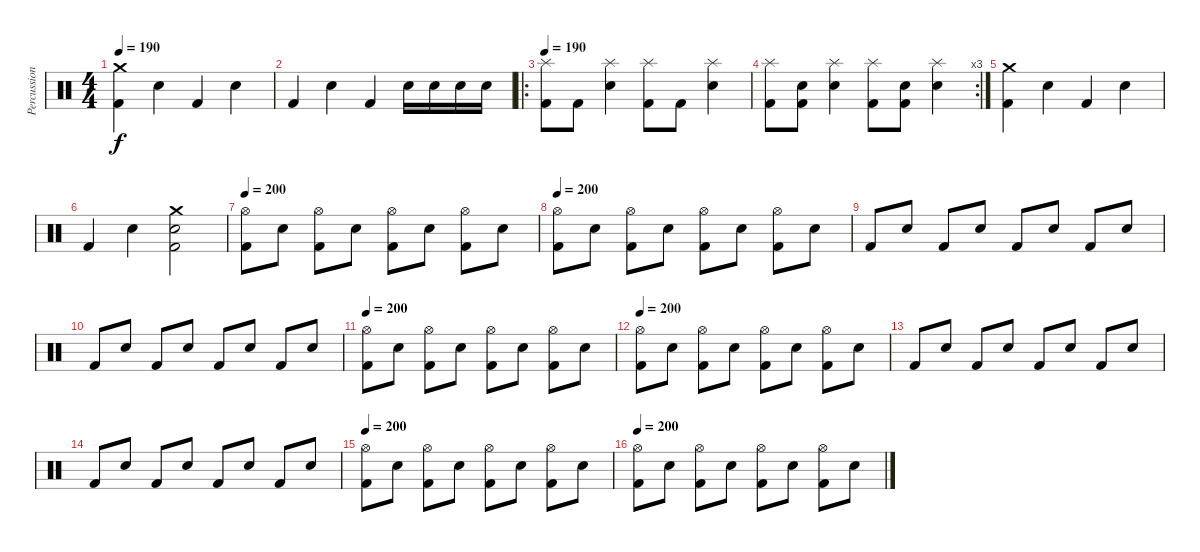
\track ("Percussion" "Percussion") {instrument percussion}
\staff {score}
\articulation defaults
\ts (4 4)
\tempo 190
\clef neutral
\ks c
("Crash medium (hit)" "Kick (hit) 2").4{dy f} "Electric Snare (hit)".4 "Kick (hit) 2".4 "Electric Snare (hit)".4 |
"Kick (hit) 2".4 "Electric Snare (hit)".4 "Kick (hit) 2".4 "Electric Snare (hit)".16 "Electric Snare (hit)".16 "Electric Snare (hit)".16 "Electric Snare (hit)".16 |
\ro
\tempo 190
("Splash (hit)" "Kick (hit) 2").8 "Kick (hit) 2".8 ("Splash (hit)" "Electric Snare (hit)").4 ("Splash (hit)" "Kick (hit) 2").8 "Kick (hit) 2".8 ("Splash (hit)" "Electric Snare (hit)").4 |
\rc 3
("Splash (hit)" "Kick (hit) 2").8 ("Electric Snare (hit)" "Kick (hit) 2").8 ("Splash (hit)" "Electric Snare (hit)").4 ("Splash (hit)" "Kick (hit) 2").8 ("Electric Snare (hit)" "Kick (hit) 2").8 ("Splash (hit)" "Electric Snare (hit)").4 |
("Crash medium (hit)" "Kick (hit) 2").4 "Electric Snare (hit)".4 "Kick (hit) 2".4 "Electric Snare (hit)".4 |
"Kick (hit) 2".4 "Electric Snare (hit)".4 ("Crash medium (hit)" "Electric Snare (hit)" "Kick (hit) 2").2 |
\tempo 200
("Hi-Hat (open)" "Kick (hit) 2").8 "Electric Snare (hit)".8 ("Hi-Hat (open)" "Kick (hit) 2").8 "Electric Snare (hit)".8 ("Hi-Hat (open)" "Kick (hit) 2").8 "Electric Snare (hit)".8 ("Hi-Hat (open)" "Kick (hit) 2").8 "Electric Snare (hit)".8 |
\tempo 200
("Hi-Hat (open)" "Kick (hit) 2").8 "Electric Snare (hit)".8 ("Hi-Hat (open)" "Kick (hit) 2").8 "Electric Snare (hit)".8 ("Hi-Hat (open)" "Kick (hit) 2").8 "Electric Snare (hit)".8 ("Hi-Hat (open)" "Kick (hit) 2").8 "Electric Snare (hit)".8 |
"Kick (hit) 2".8 "Electric Snare (hit)".8 "Kick (hit) 2".8 "Electric Snare (hit)".8 "Kick (hit) 2".8 "Electric Snare (hit)".8 "Kick (hit) 2".8 "Electric Snare (hit)".8 |
"Kick (hit) 2".8 "Electric Snare (hit)".8 "Kick (hit) 2".8 "Electric Snare (hit)".8 "Kick (hit) 2".8 "Electric Snare (hit)".8 "Kick (hit) 2".8 "Electric Snare (hit)".8 |
\tempo 200
("Hi-Hat (open)" "Kick (hit) 2").8 "Electric Snare (hit)".8 ("Hi-Hat (open)" "Kick (hit) 2").8 "Electric Snare (hit)".8 ("Hi-Hat (open)" "Kick (hit) 2").8 "Electric Snare (hit)".8 ("Hi-Hat (open)" "Kick (hit) 2").8 "Electric Snare (hit)".8 |
\tempo 200
("Hi-Hat (open)" "Kick (hit) 2").8 "Electric Snare (hit)".8 ("Hi-Hat (open)" "Kick (hit) 2").8 "Electric Snare (hit)".8 ("Hi-Hat (open)" "Kick (hit) 2").8 "Electric Snare (hit)".8 ("Hi-Hat (open)" "Kick (hit) 2").8 "Electric Snare (hit)".8 |
"Kick (hit) 2".8 "Electric Snare (hit)".8 "Kick (hit) 2".8 "Electric Snare (hit)".8 "Kick (hit) 2".8 "Electric Snare (hit)".8 "Kick (hit) 2".8 "Electric Snare (hit)".8 |
"Kick (hit) 2".8 "Electric Snare (hit)".8 "Kick (hit) 2".8 "Electric Snare (hit)".8 "Kick (hit) 2".8 "Electric Snare (hit)".8 "Kick (hit) 2".8 "Electric Snare (hit)".8 |
\tempo 200
("Hi-Hat (open)" "Kick (hit) 2").8 "Electric Snare (hit)".8 ("Hi-Hat (open)" "Kick (hit) 2").8 "Electric Snare (hit)".8 ("Hi-Hat (open)" "Kick (hit) 2").8 "Electric Snare (hit)".8 ("Hi-Hat (open)" "Kick (hit) 2").8 "Electric Snare (hit)".8 |
\tempo 200
("Hi-Hat (open)" "Kick (hit) 2").8 "Electric Snare (hit)".8 ("Hi-Hat (open)" "Kick (hit) 2").8 "Electric Snare (hit)".8 ("Hi-Hat (open)" "Kick (hit) 2").8 "Electric Snare (hit)".8 ("Hi-Hat (open)" "Kick (hit) 2").8 "Electric Snare (hit)".8
